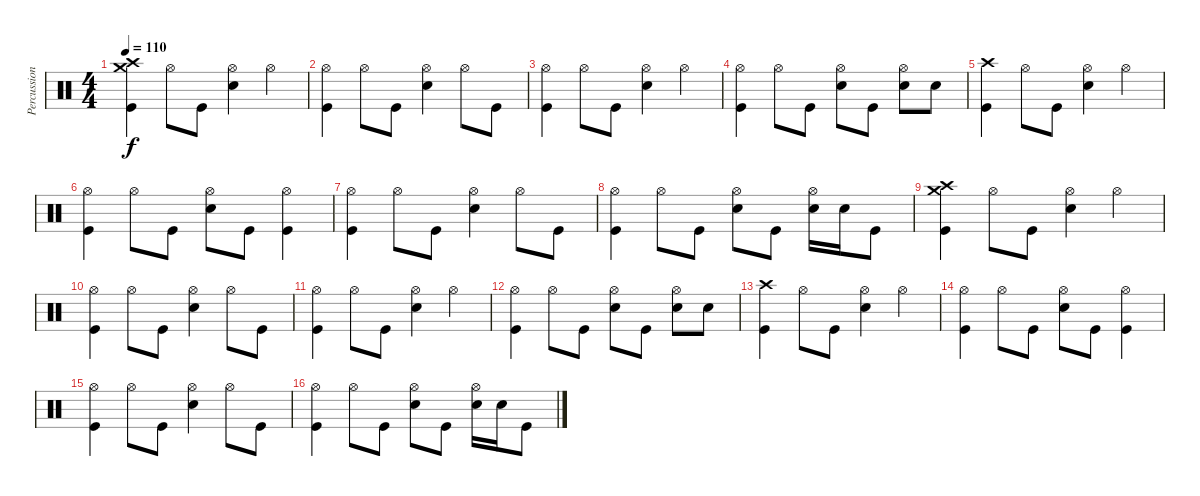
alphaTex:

\track ("Percussion" "Percussion") {instrument percussion}
\staff {score}
\articulation defaults
\ts (4 4)
\tempo 110
\clef neutral
\ks c
("Crash high (hit)" "Crash medium (hit)" "Kick (hit)").4{dy f} "Hi-Hat (open)".8 "Kick (hit)".8 ("Hi-Hat (open)" "Snare (hit) 2").4 "Hi-Hat (open)".4 |
("Hi-Hat (open)" "Kick (hit)").4 "Hi-Hat (open)".8 "Kick (hit)".8 ("Hi-Hat (open)" "Snare (hit) 2").4 "Hi-Hat (open)".8 "Kick (hit)".8 |
("Hi-Hat (open)" "Kick (hit)").4 "Hi-Hat (open)".8 "Kick (hit)".8 ("Hi-Hat (open)" "Snare (hit) 2").4 "Hi-Hat (open)".4 |
("Hi-Hat (open)" "Kick (hit)").4 "Hi-Hat (open)".8 "Kick (hit)".8 ("Hi-Hat (open)" "Snare (hit) 2").8 "Kick (hit)".8 ("Hi-Hat (open)" "Snare (hit) 2").8 "Snare (hit) 2".8 |
("Crash high (hit)" "Kick (hit)").4 "Hi-Hat (open)".8 "Kick (hit)".8 ("Hi-Hat (open)" "Snare (hit) 2").4 "Hi-Hat (open)".4 |
("Hi-Hat (open)" "Kick (hit)").4 "Hi-Hat (open)".8 "Kick (hit)".8 ("Hi-Hat (open)" "Snare (hit) 2").8 "Kick (hit)".8 ("Hi-Hat (open)" "Kick (hit)").4 |
("Hi-Hat (open)" "Kick (hit)").4 "Hi-Hat (open)".8 "Kick (hit)".8 ("Hi-Hat (open)" "Snare (hit) 2").4 "Hi-Hat (open)".8 "Kick (hit)".8 |
("Hi-Hat (open)" "Kick (hit)").4 "Hi-Hat (open)".8 "Kick (hit)".8 ("Hi-Hat (open)" "Snare (hit) 2").8 "Kick (hit)".8 ("Hi-Hat (open)" "Snare (hit) 2").16 "Snare (hit) 2".16 "Kick (hit)".8 |
("Crash high (hit)" "Crash medium (hit)" "Kick (hit)").4 "Hi-Hat (open)".8 "Kick (hit)".8 ("Hi-Hat (open)" "Snare (hit) 2").4 "Hi-Hat (open)".4 |
("Hi-Hat (open)" "Kick (hit)").4 "Hi-Hat (open)".8 "Kick (hit)".8 ("Hi-Hat (open)" "Snare (hit) 2").4 "Hi-Hat (open)".8 "Kick (hit)".8 |
("Hi-Hat (open)" "Kick (hit)").4 "Hi-Hat (open)".8 "Kick (hit)".8 ("Hi-Hat (open)" "Snare (hit) 2").4 "Hi-Hat (open)".4 |
("Hi-Hat (open)" "Kick (hit)").4 "Hi-Hat (open)".8 "Kick (hit)".8 ("Hi-Hat (open)" "Snare (hit) 2").8 "Kick (hit)".8 ("Hi-Hat (open)" "Snare (hit) 2").8 "Snare (hit) 2".8 |
("Crash high (hit)" "Kick (hit)").4 "Hi-Hat (open)".8 "Kick (hit)".8 ("Hi-Hat (open)" "Snare (hit) 2").4 "Hi-Hat (open)".4 |
("Hi-Hat (open)" "Kick (hit)").4 "Hi-Hat (open)".8 "Kick (hit)".8 ("Hi-Hat (open)" "Snare (hit) 2").8 "Kick (hit)".8 ("Hi-Hat (open)" "Kick (hit)").4 |
("Hi-Hat (open)" "Kick (hit)").4 "Hi-Hat (open)".8 "Kick (hit)".8 ("Hi-Hat (open)" "Snare (hit) 2").4 "Hi-Hat (open)".8 "Kick (hit)".8 |
("Hi-Hat (open)" "Kick (hit)").4 "Hi-Hat (open)".8 "Kick (hit)".8 ("Hi-Hat (open)" "Snare (hit) 2").8 "Kick (hit)".8 ("Hi-Hat (open)" "Snare (hit) 2").16 "Snare (hit) 2".16 "Kick (hit)".8
